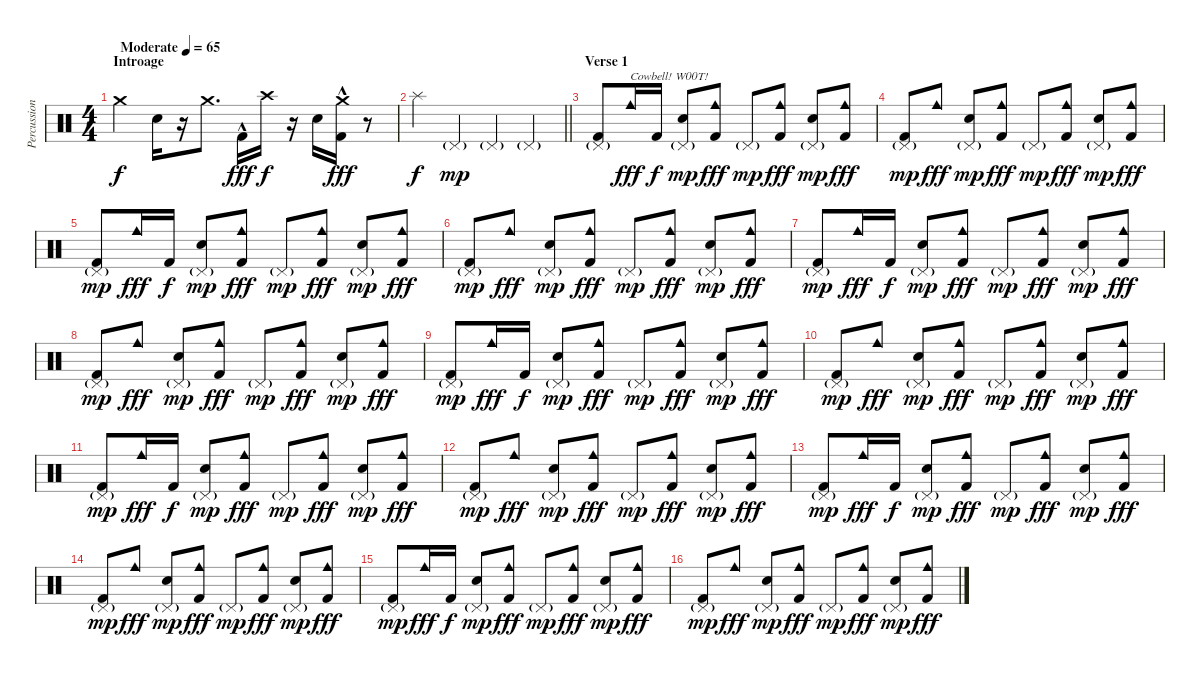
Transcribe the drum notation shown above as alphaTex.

\track ("Percussion" "Percussion") {instrument percussion}
\staff {score}
\articulation defaults
\ts (4 4)
\section ("" "Introage")
\tempo (65 "Moderate")
\tempo 130
\tempo (65 "Moderate")
\clef neutral
\ks c "Crash medium (hit)".4{dy f} "Electric Snare (hit)".16
r.16 "Crash medium (hit)".8{d} "Kick (hit) 2"{hac}.16{dy fff} "Crash high (hit)".16{dy f} r.16 "Electric Snare (hit)".16 ("Crash medium (hit)" "Kick (hit) 2"{hac}).16{dy fff} r.8 |
\barLineRight lightlight "Splash (hit)".4{dy f} "Pedal Hi-Hat (hit)"{g}.4{dy mp} "Pedal Hi-Hat (hit)"{g}.4 "Pedal Hi-Hat (hit)"{g}.4
|
\section ("" "Verse 1")
("Pedal Hi-Hat (hit)"{g} "Kick (hit) 2").8 "Cowbell medium (hit)".16{txt "Cowbell! W00T!" dy fff} "Kick (hit) 2".16{dy f} ("Pedal Hi-Hat (hit)"{g} "Electric Snare (hit)").8{dy mp} ("Cowbell medium (hit)" "Kick (hit) 2").8{dy fff} "Pedal Hi-Hat (hit)"{g}.8{dy mp} ("Cowbell medium (hit)" "Kick (hit) 2").8{dy fff} ("Pedal Hi-Hat (hit)"{g} "Electric Snare (hit)").8{dy mp} ("Cowbell medium (hit)" "Kick (hit) 2").8{dy fff} |
("Pedal Hi-Hat (hit)"{g} "Kick (hit) 2").8{dy mp} "Cowbell medium (hit)".8{dy fff} ("Pedal Hi-Hat (hit)"{g} "Electric Snare (hit)").8{dy mp} ("Cowbell medium (hit)" "Kick (hit) 2").8{dy fff} "Pedal Hi-Hat (hit)"{g}.8{dy mp} ("Cowbell medium (hit)" "Kick (hit) 2").8{dy fff} ("Pedal Hi-Hat (hit)"{g} "Electric Snare (hit)").8{dy mp} ("Cowbell medium (hit)" "Kick (hit) 2").8{dy fff} |
("Pedal Hi-Hat (hit)"{g} "Kick (hit) 2").8{dy mp} "Cowbell medium (hit)".16{dy fff} "Kick (hit) 2".16{dy f} ("Pedal Hi-Hat (hit)"{g} "Electric Snare (hit)").8{dy mp} ("Cowbell medium (hit)" "Kick (hit) 2").8{dy fff} "Pedal Hi-Hat (hit)"{g}.8{dy mp} ("Cowbell medium (hit)" "Kick (hit) 2").8{dy fff} ("Pedal Hi-Hat (hit)"{g} "Electric Snare (hit)").8{dy mp} ("Cowbell medium (hit)" "Kick (hit) 2").8{dy fff} |
("Pedal Hi-Hat (hit)"{g} "Kick (hit) 2").8{dy mp} "Cowbell medium (hit)".8{dy fff} ("Pedal Hi-Hat (hit)"{g} "Electric Snare (hit)").8{dy mp} ("Cowbell medium (hit)" "Kick (hit) 2").8{dy fff} "Pedal Hi-Hat (hit)"{g}.8{dy mp} ("Cowbell medium (hit)" "Kick (hit) 2").8{dy fff} ("Pedal Hi-Hat (hit)"{g} "Electric Snare (hit)").8{dy mp} ("Cowbell medium (hit)" "Kick (hit) 2").8{dy fff} |
("Pedal Hi-Hat (hit)"{g} "Kick (hit) 2").8{dy mp} "Cowbell medium (hit)".16{dy fff} "Kick (hit) 2".16{dy f} ("Pedal Hi-Hat (hit)"{g} "Electric Snare (hit)").8{dy mp} ("Cowbell medium (hit)" "Kick (hit) 2").8{dy fff} "Pedal Hi-Hat (hit)"{g}.8{dy mp} ("Cowbell medium (hit)" "Kick (hit) 2").8{dy fff} ("Pedal Hi-Hat (hit)"{g} "Electric Snare (hit)").8{dy mp} ("Cowbell medium (hit)" "Kick (hit) 2").8{dy fff} |
("Pedal Hi-Hat (hit)"{g} "Kick (hit) 2").8{dy mp} "Cowbell medium (hit)".8{dy fff} ("Pedal Hi-Hat (hit)"{g} "Electric Snare (hit)").8{dy mp} ("Cowbell medium (hit)" "Kick (hit) 2").8{dy fff} "Pedal Hi-Hat (hit)"{g}.8{dy mp} ("Cowbell medium (hit)" "Kick (hit) 2").8{dy fff} ("Pedal Hi-Hat (hit)"{g} "Electric Snare (hit)").8{dy mp} ("Cowbell medium (hit)" "Kick (hit) 2").8{dy fff} |
("Pedal Hi-Hat (hit)"{g} "Kick (hit) 2").8{dy mp} "Cowbell medium (hit)".16{dy fff} "Kick (hit) 2".16{dy f} ("Pedal Hi-Hat (hit)"{g} "Electric Snare (hit)").8{dy mp} ("Cowbell medium (hit)" "Kick (hit) 2").8{dy fff} "Pedal Hi-Hat (hit)"{g}.8{dy mp} ("Cowbell medium (hit)" "Kick (hit) 2").8{dy fff} ("Pedal Hi-Hat (hit)"{g} "Electric Snare (hit)").8{dy mp} ("Cowbell medium (hit)" "Kick (hit) 2").8{dy fff} |
("Pedal Hi-Hat (hit)"{g} "Kick (hit) 2").8{dy mp} "Cowbell medium (hit)".8{dy fff} ("Pedal Hi-Hat (hit)"{g} "Electric Snare (hit)").8{dy mp} ("Cowbell medium (hit)" "Kick (hit) 2").8{dy fff} "Pedal Hi-Hat (hit)"{g}.8{dy mp} ("Cowbell medium (hit)" "Kick (hit) 2").8{dy fff} ("Pedal Hi-Hat (hit)"{g} "Electric Snare (hit)").8{dy mp} ("Cowbell medium (hit)" "Kick (hit) 2").8{dy fff} |
("Pedal Hi-Hat (hit)"{g} "Kick (hit) 2").8{dy mp} "Cowbell medium (hit)".16{dy fff} "Kick (hit) 2".16{dy f} ("Pedal Hi-Hat (hit)"{g} "Electric Snare (hit)").8{dy mp} ("Cowbell medium (hit)" "Kick (hit) 2").8{dy fff} "Pedal Hi-Hat (hit)"{g}.8{dy mp} ("Cowbell medium (hit)" "Kick (hit) 2").8{dy fff} ("Pedal Hi-Hat (hit)"{g} "Electric Snare (hit)").8{dy mp} ("Cowbell medium (hit)" "Kick (hit) 2").8{dy fff} |
("Pedal Hi-Hat (hit)"{g} "Kick (hit) 2").8{dy mp} "Cowbell medium (hit)".8{dy fff} ("Pedal Hi-Hat (hit)"{g} "Electric Snare (hit)").8{dy mp} ("Cowbell medium (hit)" "Kick (hit) 2").8{dy fff} "Pedal Hi-Hat (hit)"{g}.8{dy mp} ("Cowbell medium (hit)" "Kick (hit) 2").8{dy fff} ("Pedal Hi-Hat (hit)"{g} "Electric Snare (hit)").8{dy mp} ("Cowbell medium (hit)" "Kick (hit) 2").8{dy fff} |
("Pedal Hi-Hat (hit)"{g} "Kick (hit) 2").8{dy mp} "Cowbell medium (hit)".16{dy fff} "Kick (hit) 2".16{dy f} ("Pedal Hi-Hat (hit)"{g} "Electric Snare (hit)").8{dy mp} ("Cowbell medium (hit)" "Kick (hit) 2").8{dy fff} "Pedal Hi-Hat (hit)"{g}.8{dy mp} ("Cowbell medium (hit)" "Kick (hit) 2").8{dy fff} ("Pedal Hi-Hat (hit)"{g} "Electric Snare (hit)").8{dy mp} ("Cowbell medium (hit)" "Kick (hit) 2").8{dy fff} |
("Pedal Hi-Hat (hit)"{g} "Kick (hit) 2").8{dy mp} "Cowbell medium (hit)".8{dy fff} ("Pedal Hi-Hat (hit)"{g} "Electric Snare (hit)").8{dy mp} ("Cowbell medium (hit)" "Kick (hit) 2").8{dy fff} "Pedal Hi-Hat (hit)"{g}.8{dy mp} ("Cowbell medium (hit)" "Kick (hit) 2").8{dy fff} ("Pedal Hi-Hat (hit)"{g} "Electric Snare (hit)").8{dy mp} ("Cowbell medium (hit)" "Kick (hit) 2").8{dy fff} |
("Pedal Hi-Hat (hit)"{g} "Kick (hit) 2").8{dy mp} "Cowbell medium (hit)".16{dy fff} "Kick (hit) 2".16{dy f} ("Pedal Hi-Hat (hit)"{g} "Electric Snare (hit)").8{dy mp} ("Cowbell medium (hit)" "Kick (hit) 2").8{dy fff} "Pedal Hi-Hat (hit)"{g}.8{dy mp} ("Cowbell medium (hit)" "Kick (hit) 2").8{dy fff} ("Pedal Hi-Hat (hit)"{g} "Electric Snare (hit)").8{dy mp} ("Cowbell medium (hit)" "Kick (hit) 2").8{dy fff} |
("Pedal Hi-Hat (hit)"{g} "Kick (hit) 2").8{dy mp} "Cowbell medium (hit)".8{dy fff} ("Pedal Hi-Hat (hit)"{g} "Electric Snare (hit)").8{dy mp} ("Cowbell medium (hit)" "Kick (hit) 2").8{dy fff} "Pedal Hi-Hat (hit)"{g}.8{dy mp} ("Cowbell medium (hit)" "Kick (hit) 2").8{dy fff} ("Pedal Hi-Hat (hit)"{g} "Electric Snare (hit)").8{dy mp} ("Cowbell medium (hit)" "Kick (hit) 2").8{dy fff}
